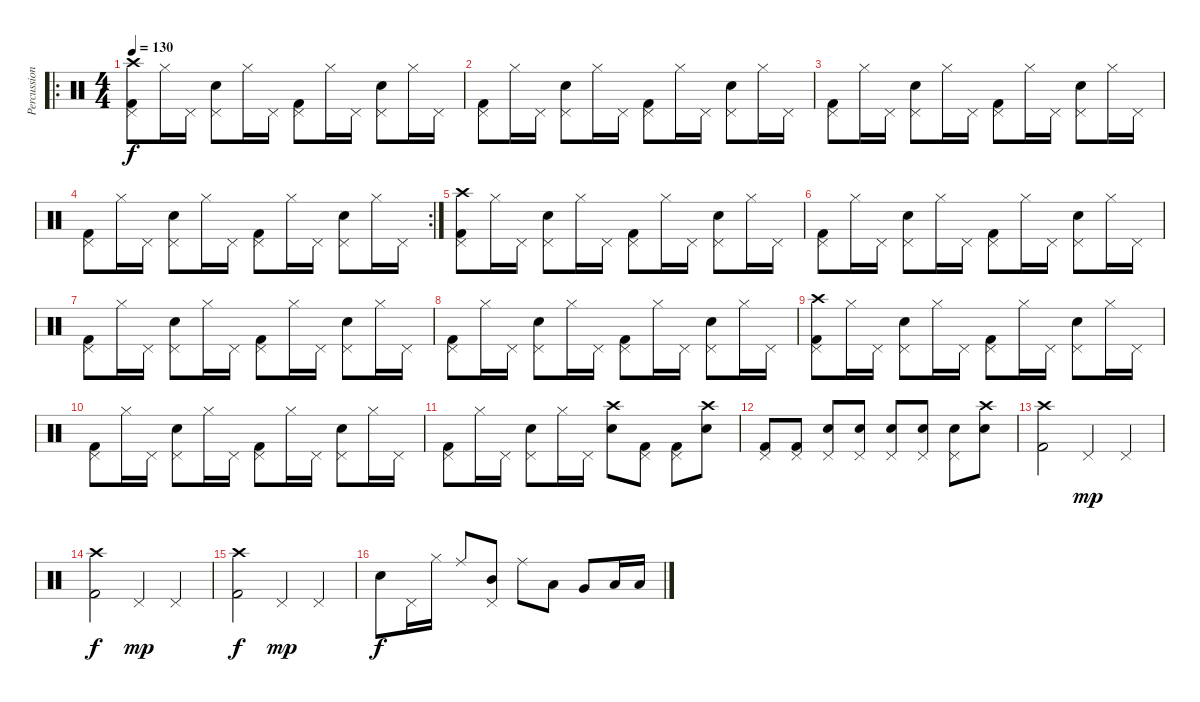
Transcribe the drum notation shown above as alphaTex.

\track ("Percussion" "Percussion") {instrument percussion}
\staff {score}
\articulation defaults
\ro
\ts (4 4)
\tempo 130
\clef neutral
\ks c
("Crash high (hit)" "Pedal Hi-Hat (hit)" "Kick (hit) 2").8{dy f} "Hi-Hat (closed)".16 "Pedal Hi-Hat (hit)".16 ("Pedal Hi-Hat (hit)" "Snare (hit) 2").8 "Hi-Hat (closed)".16 "Pedal Hi-Hat (hit)".16 ("Pedal Hi-Hat (hit)" "Kick (hit) 2").8 "Hi-Hat (closed)".16 "Pedal Hi-Hat (hit)".16 ("Pedal Hi-Hat (hit)" "Snare (hit) 2").8 "Hi-Hat (closed)".16 "Pedal Hi-Hat (hit)".16 |
("Pedal Hi-Hat (hit)" "Kick (hit) 2").8 "Hi-Hat (closed)".16 "Pedal Hi-Hat (hit)".16 ("Pedal Hi-Hat (hit)" "Snare (hit) 2").8 "Hi-Hat (closed)".16 "Pedal Hi-Hat (hit)".16 ("Pedal Hi-Hat (hit)" "Kick (hit) 2").8 "Hi-Hat (closed)".16 "Pedal Hi-Hat (hit)".16 ("Pedal Hi-Hat (hit)" "Snare (hit) 2").8 "Hi-Hat (closed)".16 "Pedal Hi-Hat (hit)".16 |
("Pedal Hi-Hat (hit)" "Kick (hit) 2").8 "Hi-Hat (closed)".16 "Pedal Hi-Hat (hit)".16 ("Pedal Hi-Hat (hit)" "Snare (hit) 2").8 "Hi-Hat (closed)".16 "Pedal Hi-Hat (hit)".16 ("Pedal Hi-Hat (hit)" "Kick (hit) 2").8 "Hi-Hat (closed)".16 "Pedal Hi-Hat (hit)".16 ("Pedal Hi-Hat (hit)" "Snare (hit) 2").8 "Hi-Hat (closed)".16 "Pedal Hi-Hat (hit)".16 |
\rc 2
("Pedal Hi-Hat (hit)" "Kick (hit) 2").8 "Hi-Hat (closed)".16 "Pedal Hi-Hat (hit)".16 ("Pedal Hi-Hat (hit)" "Snare (hit) 2").8 "Hi-Hat (closed)".16 "Pedal Hi-Hat (hit)".16 ("Pedal Hi-Hat (hit)" "Kick (hit) 2").8 "Hi-Hat (closed)".16 "Pedal Hi-Hat (hit)".16 ("Pedal Hi-Hat (hit)" "Snare (hit) 2").8 "Hi-Hat (closed)".16 "Pedal Hi-Hat (hit)".16 |
("Crash high (hit)" "Pedal Hi-Hat (hit)" "Kick (hit) 2").8 "Hi-Hat (closed)".16 "Pedal Hi-Hat (hit)".16 ("Pedal Hi-Hat (hit)" "Snare (hit) 2").8 "Hi-Hat (closed)".16 "Pedal Hi-Hat (hit)".16 ("Pedal Hi-Hat (hit)" "Kick (hit) 2").8 "Hi-Hat (closed)".16 "Pedal Hi-Hat (hit)".16 ("Pedal Hi-Hat (hit)" "Snare (hit) 2").8 "Hi-Hat (closed)".16 "Pedal Hi-Hat (hit)".16 |
("Pedal Hi-Hat (hit)" "Kick (hit) 2").8 "Hi-Hat (closed)".16 "Pedal Hi-Hat (hit)".16 ("Pedal Hi-Hat (hit)" "Snare (hit) 2").8 "Hi-Hat (closed)".16 "Pedal Hi-Hat (hit)".16 ("Pedal Hi-Hat (hit)" "Kick (hit) 2").8 "Hi-Hat (closed)".16 "Pedal Hi-Hat (hit)".16 ("Pedal Hi-Hat (hit)" "Snare (hit) 2").8 "Hi-Hat (closed)".16 "Pedal Hi-Hat (hit)".16 |
("Pedal Hi-Hat (hit)" "Kick (hit) 2").8 "Hi-Hat (closed)".16 "Pedal Hi-Hat (hit)".16 ("Pedal Hi-Hat (hit)" "Snare (hit) 2").8 "Hi-Hat (closed)".16 "Pedal Hi-Hat (hit)".16 ("Pedal Hi-Hat (hit)" "Kick (hit) 2").8 "Hi-Hat (closed)".16 "Pedal Hi-Hat (hit)".16 ("Pedal Hi-Hat (hit)" "Snare (hit) 2").8 "Hi-Hat (closed)".16 "Pedal Hi-Hat (hit)".16 |
("Pedal Hi-Hat (hit)" "Kick (hit) 2").8 "Hi-Hat (closed)".16 "Pedal Hi-Hat (hit)".16 ("Pedal Hi-Hat (hit)" "Snare (hit) 2").8 "Hi-Hat (closed)".16 "Pedal Hi-Hat (hit)".16 ("Pedal Hi-Hat (hit)" "Kick (hit) 2").8 "Hi-Hat (closed)".16 "Pedal Hi-Hat (hit)".16 ("Pedal Hi-Hat (hit)" "Snare (hit) 2").8 "Hi-Hat (closed)".16 "Pedal Hi-Hat (hit)".16 |
("Crash high (hit)" "Pedal Hi-Hat (hit)" "Kick (hit) 2").8 "Hi-Hat (closed)".16 "Pedal Hi-Hat (hit)".16 ("Pedal Hi-Hat (hit)" "Snare (hit) 2").8 "Hi-Hat (closed)".16 "Pedal Hi-Hat (hit)".16 ("Pedal Hi-Hat (hit)" "Kick (hit) 2").8 "Hi-Hat (closed)".16 "Pedal Hi-Hat (hit)".16 ("Pedal Hi-Hat (hit)" "Snare (hit) 2").8 "Hi-Hat (closed)".16 "Pedal Hi-Hat (hit)".16 |
("Pedal Hi-Hat (hit)" "Kick (hit) 2").8 "Hi-Hat (closed)".16 "Pedal Hi-Hat (hit)".16 ("Pedal Hi-Hat (hit)" "Snare (hit) 2").8 "Hi-Hat (closed)".16 "Pedal Hi-Hat (hit)".16 ("Pedal Hi-Hat (hit)" "Kick (hit) 2").8 "Hi-Hat (closed)".16 "Pedal Hi-Hat (hit)".16 ("Pedal Hi-Hat (hit)" "Snare (hit) 2").8 "Hi-Hat (closed)".16 "Pedal Hi-Hat (hit)".16 |
("Pedal Hi-Hat (hit)" "Kick (hit) 2").8 "Hi-Hat (closed)".16 "Pedal Hi-Hat (hit)".16 ("Pedal Hi-Hat (hit)" "Snare (hit) 2").8 "Hi-Hat (closed)".16 "Pedal Hi-Hat (hit)".16 ("Crash high (hit)" "Snare (hit) 2").8 ("Pedal Hi-Hat (hit)" "Kick (hit) 2").8 ("Pedal Hi-Hat (hit)" "Kick (hit) 2").8 ("Crash high (hit)" "Snare (hit) 2").8 |
("Pedal Hi-Hat (hit)" "Kick (hit) 2").8 ("Pedal Hi-Hat (hit)" "Kick (hit) 2").8 ("Pedal Hi-Hat (hit)" "Snare (hit) 2").8 ("Pedal Hi-Hat (hit)" "Snare (hit) 2").8 ("Pedal Hi-Hat (hit)" "Snare (hit) 2").8 ("Pedal Hi-Hat (hit)" "Snare (hit) 2").8 ("Pedal Hi-Hat (hit)" "Snare (hit) 2").8 ("Crash high (hit)" "Snare (hit) 2").8 |
("Crash high (hit)" "Kick (hit) 2").2 "Pedal Hi-Hat (hit)".4{dy mp} "Pedal Hi-Hat (hit)".4 |
("Crash high (hit)" "Kick (hit) 2").2{dy f} "Pedal Hi-Hat (hit)".4{dy mp} "Pedal Hi-Hat (hit)".4 |
("Crash high (hit)" "Kick (hit) 2").2{dy f} "Pedal Hi-Hat (hit)".4{dy mp} "Pedal Hi-Hat (hit)".4 |
"Snare (hit) 2".8{dy f} "Pedal Hi-Hat (hit)".16 "Hi-Hat (closed)".16 "Ride (middle)".8 ("Mid Tom (hit)" "Pedal Hi-Hat (hit)").8 "Ride (middle)".8 "Low Tom (hit)".8 "Very Low Tom (hit)".8 "Low Floor Tom (hit)".16 "Low Floor Tom (hit)".16
